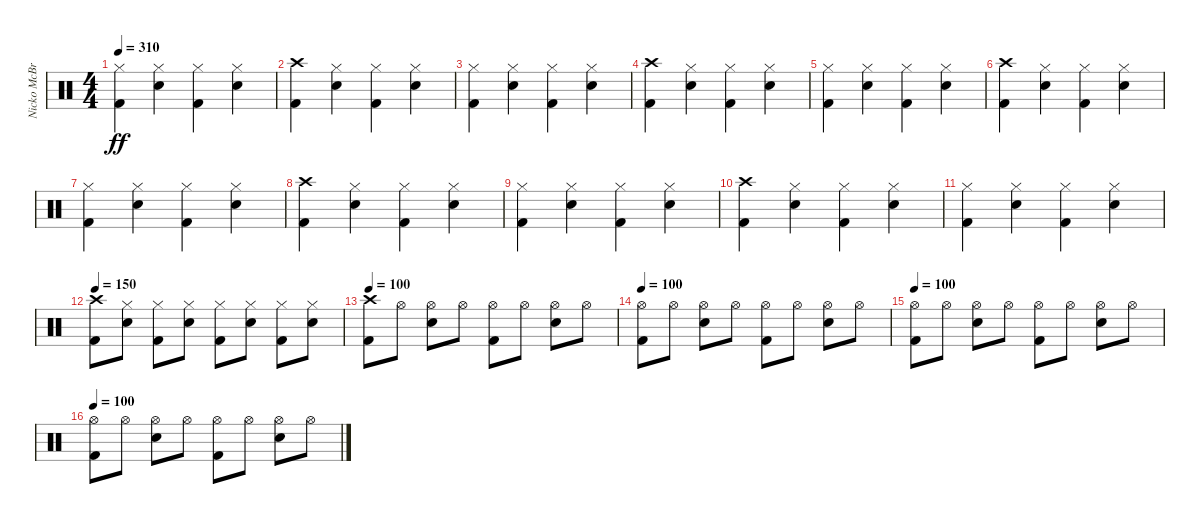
\track ("Nicko McBrain" "Nicko McBr") {instrument percussion}
\staff {score}
\articulation defaults
\ts (4 4)
\tempo 310
\clef neutral
\ks c
("Kick (hit) 2" "Hi-Hat (closed)").4{dy ff} ("Snare (hit) 2" "Hi-Hat (closed)").4 ("Kick (hit) 2" "Hi-Hat (closed)").4 ("Snare (hit) 2" "Hi-Hat (closed)").4 |
("Kick (hit) 2" "Crash high (hit)").4 ("Snare (hit) 2" "Hi-Hat (closed)").4 ("Kick (hit) 2" "Hi-Hat (closed)").4 ("Snare (hit) 2" "Hi-Hat (closed)").4 |
("Kick (hit) 2" "Hi-Hat (closed)").4 ("Snare (hit) 2" "Hi-Hat (closed)").4 ("Kick (hit) 2" "Hi-Hat (closed)").4 ("Snare (hit) 2" "Hi-Hat (closed)").4 |
("Kick (hit) 2" "Crash high (hit)").4 ("Snare (hit) 2" "Hi-Hat (closed)").4 ("Kick (hit) 2" "Hi-Hat (closed)").4 ("Snare (hit) 2" "Hi-Hat (closed)").4 |
("Kick (hit) 2" "Hi-Hat (closed)").4 ("Snare (hit) 2" "Hi-Hat (closed)").4 ("Kick (hit) 2" "Hi-Hat (closed)").4 ("Snare (hit) 2" "Hi-Hat (closed)").4 |
("Kick (hit) 2" "Crash high (hit)").4 ("Snare (hit) 2" "Hi-Hat (closed)").4 ("Kick (hit) 2" "Hi-Hat (closed)").4 ("Snare (hit) 2" "Hi-Hat (closed)").4 |
("Kick (hit) 2" "Hi-Hat (closed)").4 ("Snare (hit) 2" "Hi-Hat (closed)").4 ("Kick (hit) 2" "Hi-Hat (closed)").4 ("Snare (hit) 2" "Hi-Hat (closed)").4 |
("Kick (hit) 2" "Crash high (hit)").4 ("Snare (hit) 2" "Hi-Hat (closed)").4 ("Kick (hit) 2" "Hi-Hat (closed)").4 ("Snare (hit) 2" "Hi-Hat (closed)").4 |
("Kick (hit) 2" "Hi-Hat (closed)").4 ("Snare (hit) 2" "Hi-Hat (closed)").4 ("Kick (hit) 2" "Hi-Hat (closed)").4 ("Snare (hit) 2" "Hi-Hat (closed)").4 |
("Kick (hit) 2" "Crash high (hit)").4 ("Snare (hit) 2" "Hi-Hat (closed)").4 ("Kick (hit) 2" "Hi-Hat (closed)").4 ("Snare (hit) 2" "Hi-Hat (closed)").4 |
("Kick (hit) 2" "Hi-Hat (closed)").4 ("Snare (hit) 2" "Hi-Hat (closed)").4 ("Kick (hit) 2" "Hi-Hat (closed)").4 ("Snare (hit) 2" "Hi-Hat (closed)").4 |
\tempo 150
("Kick (hit) 2" "Crash high (hit)").8 ("Snare (hit) 2" "Hi-Hat (closed)").8 ("Kick (hit) 2" "Hi-Hat (closed)").8 ("Snare (hit) 2" "Hi-Hat (closed)").8 ("Kick (hit) 2" "Hi-Hat (closed)").8 ("Snare (hit) 2" "Hi-Hat (closed)").8 ("Kick (hit) 2" "Hi-Hat (closed)").8 ("Snare (hit) 2" "Hi-Hat (closed)").8 |
\tempo 100
("Kick (hit) 2" "Crash high (hit)").8 "Hi-Hat (open)".8 ("Snare (hit) 2" "Hi-Hat (open)").8 "Hi-Hat (open)".8 ("Kick (hit) 2" "Hi-Hat (open)").8 "Hi-Hat (open)".8 ("Snare (hit) 2" "Hi-Hat (open)").8 "Hi-Hat (open)".8 |
\tempo 100
("Kick (hit) 2" "Hi-Hat (open)").8 "Hi-Hat (open)".8 ("Snare (hit) 2" "Hi-Hat (open)").8 "Hi-Hat (open)".8 ("Kick (hit) 2" "Hi-Hat (open)").8 "Hi-Hat (open)".8 ("Snare (hit) 2" "Hi-Hat (open)").8 "Hi-Hat (open)".8 |
\tempo 100
("Kick (hit) 2" "Hi-Hat (open)").8 "Hi-Hat (open)".8 ("Snare (hit) 2" "Hi-Hat (open)").8 "Hi-Hat (open)".8 ("Kick (hit) 2" "Hi-Hat (open)").8 "Hi-Hat (open)".8 ("Snare (hit) 2" "Hi-Hat (open)").8 "Hi-Hat (open)".8 |
\tempo 100
("Kick (hit) 2" "Hi-Hat (open)").8 "Hi-Hat (open)".8 ("Snare (hit) 2" "Hi-Hat (open)").8 "Hi-Hat (open)".8 ("Kick (hit) 2" "Hi-Hat (open)").8 "Hi-Hat (open)".8 ("Snare (hit) 2" "Hi-Hat (open)").8 "Hi-Hat (open)".8
